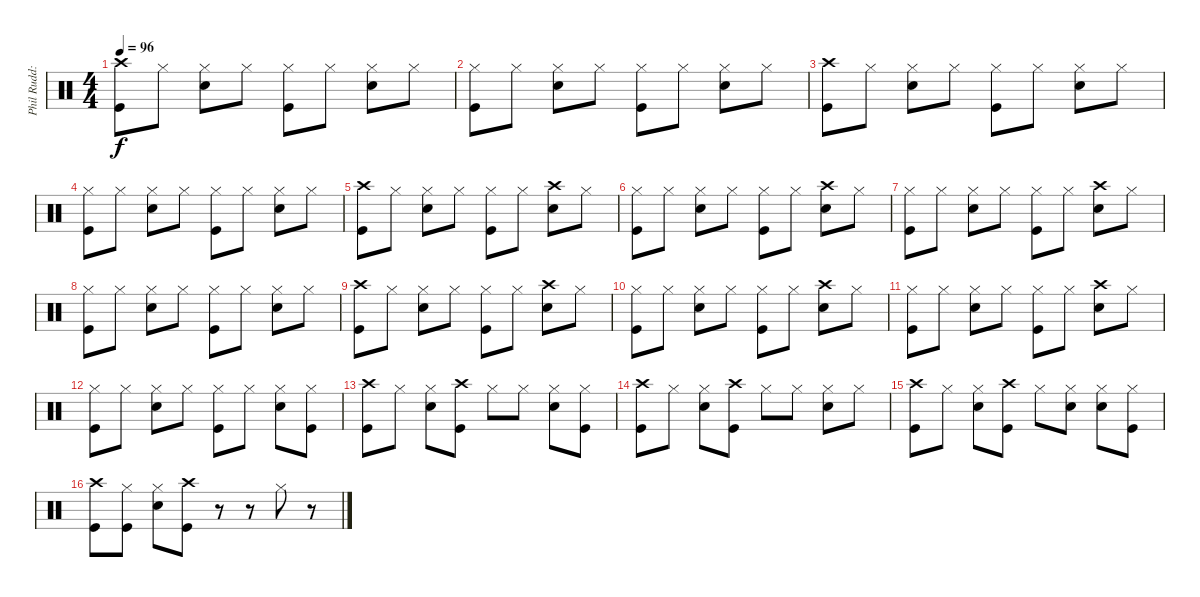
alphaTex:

\track ("Phil Rudd: Drums" "Phil Rudd:") {instrument percussion}
\staff {score}
\articulation defaults
\ts (4 4)
\tempo 96
\clef neutral
\ks c
("Crash high (hit)" "Kick (hit)").8{dy f} "Hi-Hat (closed)".8 ("Hi-Hat (closed)" "Snare (hit) 2").8 "Hi-Hat (closed)".8 ("Hi-Hat (closed)" "Kick (hit)").8 "Hi-Hat (closed)".8 ("Hi-Hat (closed)" "Snare (hit) 2").8 "Hi-Hat (closed)".8 |
("Hi-Hat (closed)" "Kick (hit)").8 "Hi-Hat (closed)".8 ("Hi-Hat (closed)" "Snare (hit) 2").8 "Hi-Hat (closed)".8 ("Hi-Hat (closed)" "Kick (hit)").8 "Hi-Hat (closed)".8 ("Hi-Hat (closed)" "Snare (hit) 2").8 "Hi-Hat (closed)".8 |
("Crash high (hit)" "Kick (hit)").8 "Hi-Hat (closed)".8 ("Hi-Hat (closed)" "Snare (hit) 2").8 "Hi-Hat (closed)".8 ("Hi-Hat (closed)" "Kick (hit)").8 "Hi-Hat (closed)".8 ("Hi-Hat (closed)" "Snare (hit) 2").8 "Hi-Hat (closed)".8 |
("Hi-Hat (closed)" "Kick (hit)").8 "Hi-Hat (closed)".8 ("Hi-Hat (closed)" "Snare (hit) 2").8 "Hi-Hat (closed)".8 ("Hi-Hat (closed)" "Kick (hit)").8 "Hi-Hat (closed)".8 ("Hi-Hat (closed)" "Snare (hit) 2").8 "Hi-Hat (closed)".8 |
("Crash high (hit)" "Kick (hit)").8 "Hi-Hat (closed)".8 ("Hi-Hat (closed)" "Snare (hit) 2").8 "Hi-Hat (closed)".8 ("Hi-Hat (closed)" "Kick (hit)").8 "Hi-Hat (closed)".8 ("Crash high (hit)" "Snare (hit) 2").8 "Hi-Hat (closed)".8 |
("Hi-Hat (closed)" "Kick (hit)").8 "Hi-Hat (closed)".8 ("Hi-Hat (closed)" "Snare (hit) 2").8 "Hi-Hat (closed)".8 ("Hi-Hat (closed)" "Kick (hit)").8 "Hi-Hat (closed)".8 ("Crash high (hit)" "Snare (hit) 2").8 "Hi-Hat (closed)".8 |
("Hi-Hat (closed)" "Kick (hit)").8 "Hi-Hat (closed)".8 ("Hi-Hat (closed)" "Snare (hit) 2").8 "Hi-Hat (closed)".8 ("Hi-Hat (closed)" "Kick (hit)").8 "Hi-Hat (closed)".8 ("Crash high (hit)" "Snare (hit) 2").8 "Hi-Hat (closed)".8 |
("Hi-Hat (closed)" "Kick (hit)").8 "Hi-Hat (closed)".8 ("Hi-Hat (closed)" "Snare (hit) 2").8 "Hi-Hat (closed)".8 ("Hi-Hat (closed)" "Kick (hit)").8 "Hi-Hat (closed)".8 ("Hi-Hat (closed)" "Snare (hit) 2").8 "Hi-Hat (closed)".8 |
("Crash high (hit)" "Kick (hit)").8 "Hi-Hat (closed)".8 ("Hi-Hat (closed)" "Snare (hit) 2").8 "Hi-Hat (closed)".8 ("Hi-Hat (closed)" "Kick (hit)").8 "Hi-Hat (closed)".8 ("Crash high (hit)" "Snare (hit) 2").8 "Hi-Hat (closed)".8 |
("Hi-Hat (closed)" "Kick (hit)").8 "Hi-Hat (closed)".8 ("Hi-Hat (closed)" "Snare (hit) 2").8 "Hi-Hat (closed)".8 ("Hi-Hat (closed)" "Kick (hit)").8 "Hi-Hat (closed)".8 ("Crash high (hit)" "Snare (hit) 2").8 "Hi-Hat (closed)".8 |
("Hi-Hat (closed)" "Kick (hit)").8 "Hi-Hat (closed)".8 ("Hi-Hat (closed)" "Snare (hit) 2").8 "Hi-Hat (closed)".8 ("Hi-Hat (closed)" "Kick (hit)").8 "Hi-Hat (closed)".8 ("Crash high (hit)" "Snare (hit) 2").8 "Hi-Hat (closed)".8 |
("Hi-Hat (closed)" "Kick (hit)").8 "Hi-Hat (closed)".8 ("Hi-Hat (closed)" "Snare (hit) 2").8 "Hi-Hat (closed)".8 ("Hi-Hat (closed)" "Kick (hit)").8 "Hi-Hat (closed)".8 ("Hi-Hat (closed)" "Snare (hit) 2").8 ("Hi-Hat (closed)" "Kick (hit)").8 |
("Crash high (hit)" "Kick (hit)").8 "Hi-Hat (closed)".8 ("Hi-Hat (closed)" "Snare (hit) 2").8 ("Crash high (hit)" "Kick (hit)").8 "Hi-Hat (closed)".8 "Hi-Hat (closed)".8 ("Hi-Hat (closed)" "Snare (hit) 2").8 ("Hi-Hat (closed)" "Kick (hit)").8 |
("Crash high (hit)" "Kick (hit)").8 "Hi-Hat (closed)".8 ("Hi-Hat (closed)" "Snare (hit) 2").8 ("Crash high (hit)" "Kick (hit)").8 "Hi-Hat (closed)".8 "Hi-Hat (closed)".8 ("Hi-Hat (closed)" "Snare (hit) 2").8 "Hi-Hat (closed)".8 |
("Crash high (hit)" "Kick (hit)").8 "Hi-Hat (closed)".8 ("Hi-Hat (closed)" "Snare (hit) 2").8 ("Crash high (hit)" "Kick (hit)").8 "Hi-Hat (closed)".8 ("Hi-Hat (closed)" "Snare (hit) 2").8 ("Hi-Hat (closed)" "Snare (hit) 2").8 ("Hi-Hat (closed)" "Kick (hit)").8 |
("Crash high (hit)" "Kick (hit)").8 ("Hi-Hat (closed)" "Kick (hit)").8 ("Hi-Hat (closed)" "Snare (hit) 2").8 ("Crash high (hit)" "Kick (hit)").8 r.8 r.8 "Hi-Hat (closed)".8 r.8
